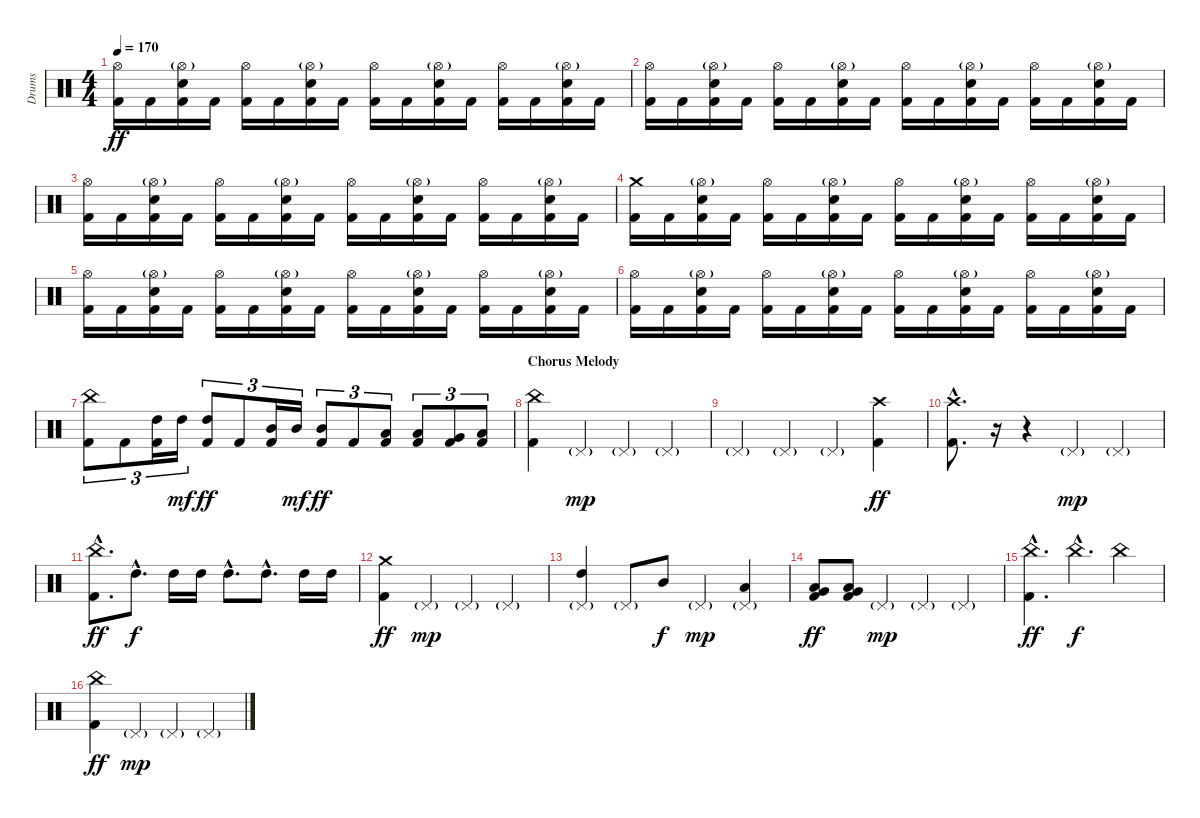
\track ("Drums" "Drums") {instrument percussion}
\staff {score}
\articulation defaults
\ts (4 4)
\tempo 170
\clef neutral
\ks c
("Hi-Hat (open)" "Kick (hit) 2").16{dy ff} "Kick (hit) 2".16 ("Hi-Hat (open)"{g} "Electric Snare (hit)" "Kick (hit) 2").16 "Kick (hit) 2".16 ("Hi-Hat (open)" "Kick (hit) 2").16 "Kick (hit) 2".16 ("Hi-Hat (open)"{g} "Electric Snare (hit)" "Kick (hit) 2").16 "Kick (hit) 2".16 ("Hi-Hat (open)" "Kick (hit) 2").16 "Kick (hit) 2".16 ("Hi-Hat (open)"{g} "Electric Snare (hit)" "Kick (hit) 2").16 "Kick (hit) 2".16 ("Hi-Hat (open)" "Kick (hit) 2").16 "Kick (hit) 2".16 ("Hi-Hat (open)"{g} "Electric Snare (hit)" "Kick (hit) 2").16 "Kick (hit) 2".16 |
("Hi-Hat (open)" "Kick (hit) 2").16 "Kick (hit) 2".16 ("Hi-Hat (open)"{g} "Electric Snare (hit)" "Kick (hit) 2").16 "Kick (hit) 2".16 ("Hi-Hat (open)" "Kick (hit) 2").16 "Kick (hit) 2".16 ("Hi-Hat (open)"{g} "Electric Snare (hit)" "Kick (hit) 2").16 "Kick (hit) 2".16 ("Hi-Hat (open)" "Kick (hit) 2").16 "Kick (hit) 2".16 ("Hi-Hat (open)"{g} "Electric Snare (hit)" "Kick (hit) 2").16 "Kick (hit) 2".16 ("Hi-Hat (open)" "Kick (hit) 2").16 "Kick (hit) 2".16 ("Hi-Hat (open)"{g} "Electric Snare (hit)" "Kick (hit) 2").16 "Kick (hit) 2".16 |
("Hi-Hat (open)" "Kick (hit) 2").16 "Kick (hit) 2".16 ("Hi-Hat (open)"{g} "Electric Snare (hit)" "Kick (hit) 2").16 "Kick (hit) 2".16 ("Hi-Hat (open)" "Kick (hit) 2").16 "Kick (hit) 2".16 ("Hi-Hat (open)"{g} "Electric Snare (hit)" "Kick (hit) 2").16 "Kick (hit) 2".16 ("Hi-Hat (open)" "Kick (hit) 2").16 "Kick (hit) 2".16 ("Hi-Hat (open)"{g} "Electric Snare (hit)" "Kick (hit) 2").16 "Kick (hit) 2".16 ("Hi-Hat (open)" "Kick (hit) 2").16 "Kick (hit) 2".16 ("Hi-Hat (open)"{g} "Electric Snare (hit)" "Kick (hit) 2").16 "Kick (hit) 2".16 |
("Crash medium (hit)" "Kick (hit) 2").16 "Kick (hit) 2".16 ("Hi-Hat (open)"{g} "Electric Snare (hit)" "Kick (hit) 2").16 "Kick (hit) 2".16 ("Hi-Hat (open)" "Kick (hit) 2").16 "Kick (hit) 2".16 ("Hi-Hat (open)"{g} "Electric Snare (hit)" "Kick (hit) 2").16 "Kick (hit) 2".16 ("Hi-Hat (open)" "Kick (hit) 2").16 "Kick (hit) 2".16 ("Hi-Hat (open)"{g} "Electric Snare (hit)" "Kick (hit) 2").16 "Kick (hit) 2".16 ("Hi-Hat (open)" "Kick (hit) 2").16 "Kick (hit) 2".16 ("Hi-Hat (open)"{g} "Electric Snare (hit)" "Kick (hit) 2").16 "Kick (hit) 2".16 |
("Hi-Hat (open)" "Kick (hit) 2").16 "Kick (hit) 2".16 ("Hi-Hat (open)"{g} "Electric Snare (hit)" "Kick (hit) 2").16 "Kick (hit) 2".16 ("Hi-Hat (open)" "Kick (hit) 2").16 "Kick (hit) 2".16 ("Hi-Hat (open)"{g} "Electric Snare (hit)" "Kick (hit) 2").16 "Kick (hit) 2".16 ("Hi-Hat (open)" "Kick (hit) 2").16 "Kick (hit) 2".16 ("Hi-Hat (open)"{g} "Electric Snare (hit)" "Kick (hit) 2").16 "Kick (hit) 2".16 ("Hi-Hat (open)" "Kick (hit) 2").16 "Kick (hit) 2".16 ("Hi-Hat (open)"{g} "Electric Snare (hit)" "Kick (hit) 2").16 "Kick (hit) 2".16 |
("Hi-Hat (open)" "Kick (hit) 2").16 "Kick (hit) 2".16 ("Hi-Hat (open)"{g} "Electric Snare (hit)" "Kick (hit) 2").16 "Kick (hit) 2".16 ("Hi-Hat (open)" "Kick (hit) 2").16 "Kick (hit) 2".16 ("Hi-Hat (open)"{g} "Electric Snare (hit)" "Kick (hit) 2").16 "Kick (hit) 2".16 ("Hi-Hat (open)" "Kick (hit) 2").16 "Kick (hit) 2".16 ("Hi-Hat (open)"{g} "Electric Snare (hit)" "Kick (hit) 2").16 "Kick (hit) 2".16 ("Hi-Hat (open)" "Kick (hit) 2").16 "Kick (hit) 2".16 ("Hi-Hat (open)"{g} "Electric Snare (hit)" "Kick (hit) 2").16 "Kick (hit) 2".16 |
("China (hit)" "Kick (hit) 2").8{tu (3 2)} "Kick (hit) 2".8{tu (3 2)} ("High Tom (hit)" "Kick (hit) 2").16{tu (3 2)} "High Tom (hit)".16{tu (3 2) dy mf} ("High Tom (hit)" "Kick (hit) 2").8{tu (3 2) dy ff} "Kick (hit) 2".8{tu (3 2)} ("Mid Tom (hit)" "Kick (hit) 2").16{tu (3 2)} "Mid Tom (hit)".16{tu (3 2) dy mf} ("Mid Tom (hit)" "Kick (hit) 2").8{tu (3 2) dy ff} "Kick (hit) 2".8{tu (3 2)} ("Low Tom (hit)" "Kick (hit) 2").8{tu (3 2)} ("Low Tom (hit)" "Kick (hit) 2").8{tu (3 2)} ("Very Low Tom (hit)" "Kick (hit) 2").8{tu (3 2)} ("Low Floor Tom (hit)" "Kick (hit) 2").8{tu (3 2)} |
\section ("" "Chorus Melody")
("China (hit)" "Kick (hit) 2").4 "Pedal Hi-Hat (hit)"{g}.4{dy mp} "Pedal Hi-Hat (hit)"{g}.4 "Pedal Hi-Hat (hit)"{g}.4 |
"Pedal Hi-Hat (hit)"{g}.4 "Pedal Hi-Hat (hit)"{g}.4 "Pedal Hi-Hat (hit)"{g}.4 ("Crash high (hit)" "Kick (hit) 2").4{dy ff} |
("Crash high (hit)"{hac} "Kick (hit) 2"{hac}).8{d} r.16{volume 6} r.4 "Pedal Hi-Hat (hit)"{g}.4{dy mp volume 13} "Pedal Hi-Hat (hit)"{g}.4 |
("China (hit)"{hac} "Kick (hit) 2"{hac}).8{d dy ff} "High Tom (hit)"{hac}.8{d dy f} "High Tom (hit)".16 "High Tom (hit)".16 "High Tom (hit)"{hac}.8{d} "High Tom (hit)"{hac}.8{d} "High Tom (hit)".16 "High Tom (hit)".16 |
("Crash medium (hit)" "Kick (hit) 2").4{dy ff} "Pedal Hi-Hat (hit)"{g}.4{dy mp} "Pedal Hi-Hat (hit)"{g}.4 "Pedal Hi-Hat (hit)"{g}.4 |
("Pedal Hi-Hat (hit)"{g} "High Tom (hit)").4 "Pedal Hi-Hat (hit)"{g}.8 "Mid Tom (hit)".8{dy f} "Pedal Hi-Hat (hit)"{g}.4{dy mp} ("Pedal Hi-Hat (hit)"{g} "Low Tom (hit)").4 |
("Very Low Tom (hit)" "Low Floor Tom (hit)" "Kick (hit) 2").8{dy ff} ("Very Low Tom (hit)" "Low Floor Tom (hit)" "Kick (hit) 2").8 "Pedal Hi-Hat (hit)"{g}.4{dy mp} "Pedal Hi-Hat (hit)"{g}.4 "Pedal Hi-Hat (hit)"{g}.4 |
("China (hit)"{hac} "Kick (hit) 2"{hac}).4{d dy ff} "China (hit)"{hac}.4{d dy f} "China (hit)".4 |
("China (hit)" "Kick (hit) 2").4{dy ff} "Pedal Hi-Hat (hit)"{g}.4{dy mp} "Pedal Hi-Hat (hit)"{g}.4 "Pedal Hi-Hat (hit)"{g}.4
